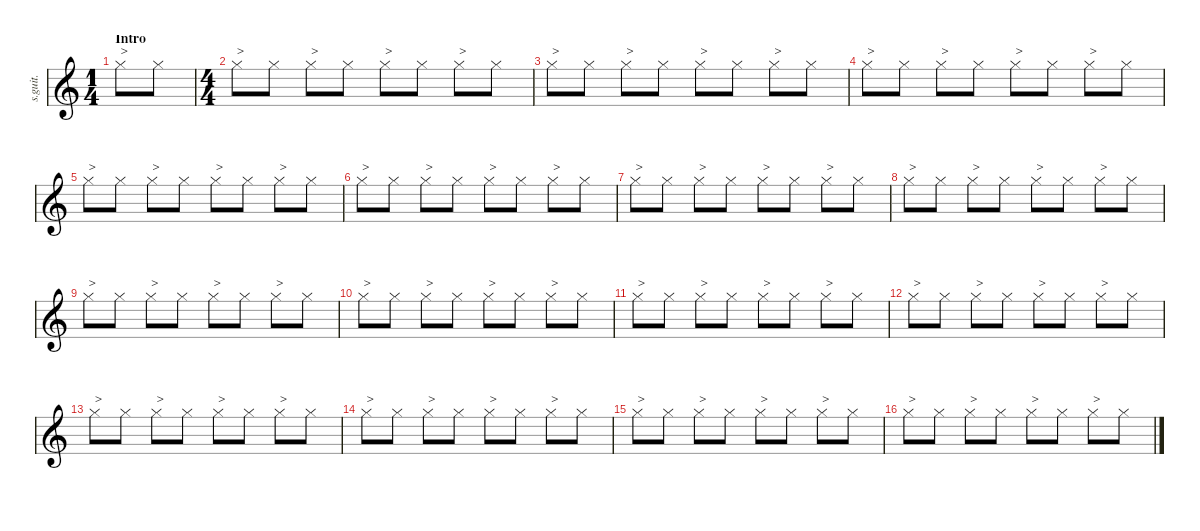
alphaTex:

\defaultSystemsLayout 4
\hideDynamics
\bracketExtendMode nobrackets
\track ("Chris Slade" "s.guit.") {instrument percussion}
\staff {score}
\articulation defaults
\ts (1 4)
\beaming (8 2 2 2 2)
\section ("" "Intro")
\tempo (134 hide)
\clef g2
\ks c "Hi-Hat (closed)".8{txt ">" lyrics (0 "") lyrics (1 "") lyrics (2 "") lyrics (3 "") lyrics (4 "") dy fff} "Hi-Hat (closed)".8{lyrics (0 "") lyrics (1 "") lyrics (2 "") lyrics (3 "") lyrics (4 "") dy mf}
|
\ts (4 4)
\beaming (8 2 2 2 2)
"Hi-Hat (closed)".8{txt ">" lyrics (0 "") lyrics (1 "") lyrics (2 "") lyrics (3 "") lyrics (4 "") dy ff} "Hi-Hat (closed)".8{lyrics (0 "") lyrics (1 "") lyrics (2 "") lyrics (3 "") lyrics (4 "") dy mf} "Hi-Hat (closed)".8{txt ">" lyrics (0 "") lyrics (1 "") lyrics (2 "") lyrics (3 "") lyrics (4 "") dy ff} "Hi-Hat (closed)".8{lyrics (0 "") lyrics (1 "") lyrics (2 "") lyrics (3 "") lyrics (4 "") dy mf} "Hi-Hat (closed)".8{txt ">" lyrics (0 "") lyrics (1 "") lyrics (2 "") lyrics (3 "") lyrics (4 "") dy ff} "Hi-Hat (closed)".8{lyrics (0 "") lyrics (1 "") lyrics (2 "") lyrics (3 "") lyrics (4 "") dy mf} "Hi-Hat (closed)".8{txt ">" lyrics (0 "") lyrics (1 "") lyrics (2 "") lyrics (3 "") lyrics (4 "") dy ff} "Hi-Hat (closed)".8{lyrics (0 "") lyrics (1 "") lyrics (2 "") lyrics (3 "") lyrics (4 "") dy mf} |
"Hi-Hat (closed)".8{txt ">" lyrics (0 "") lyrics (1 "") lyrics (2 "") lyrics (3 "") lyrics (4 "") dy ff} "Hi-Hat (closed)".8{lyrics (0 "") lyrics (1 "") lyrics (2 "") lyrics (3 "") lyrics (4 "") dy mf} "Hi-Hat (closed)".8{txt ">" lyrics (0 "") lyrics (1 "") lyrics (2 "") lyrics (3 "") lyrics (4 "") dy ff} "Hi-Hat (closed)".8{lyrics (0 "") lyrics (1 "") lyrics (2 "") lyrics (3 "") lyrics (4 "") dy mf} "Hi-Hat (closed)".8{txt ">" lyrics (0 "") lyrics (1 "") lyrics (2 "") lyrics (3 "") lyrics (4 "") dy ff} "Hi-Hat (closed)".8{lyrics (0 "") lyrics (1 "") lyrics (2 "") lyrics (3 "") lyrics (4 "") dy mf} "Hi-Hat (closed)".8{txt ">" lyrics (0 "") lyrics (1 "") lyrics (2 "") lyrics (3 "") lyrics (4 "") dy ff} "Hi-Hat (closed)".8{lyrics (0 "") lyrics (1 "") lyrics (2 "") lyrics (3 "") lyrics (4 "") dy mf} |
"Hi-Hat (closed)".8{txt ">" lyrics (0 "") lyrics (1 "") lyrics (2 "") lyrics (3 "") lyrics (4 "") dy ff} "Hi-Hat (closed)".8{lyrics (0 "") lyrics (1 "") lyrics (2 "") lyrics (3 "") lyrics (4 "") dy mf} "Hi-Hat (closed)".8{txt ">" lyrics (0 "") lyrics (1 "") lyrics (2 "") lyrics (3 "") lyrics (4 "") dy ff} "Hi-Hat (closed)".8{lyrics (0 "") lyrics (1 "") lyrics (2 "") lyrics (3 "") lyrics (4 "") dy mf} "Hi-Hat (closed)".8{txt ">" lyrics (0 "") lyrics (1 "") lyrics (2 "") lyrics (3 "") lyrics (4 "") dy ff} "Hi-Hat (closed)".8{lyrics (0 "") lyrics (1 "") lyrics (2 "") lyrics (3 "") lyrics (4 "") dy mf} "Hi-Hat (closed)".8{txt ">" lyrics (0 "") lyrics (1 "") lyrics (2 "") lyrics (3 "") lyrics (4 "") dy ff} "Hi-Hat (closed)".8{lyrics (0 "") lyrics (1 "") lyrics (2 "") lyrics (3 "") lyrics (4 "") dy mf} |
"Hi-Hat (closed)".8{txt ">" lyrics (0 "") lyrics (1 "") lyrics (2 "") lyrics (3 "") lyrics (4 "") dy ff} "Hi-Hat (closed)".8{lyrics (0 "") lyrics (1 "") lyrics (2 "") lyrics (3 "") lyrics (4 "") dy mf} "Hi-Hat (closed)".8{txt ">" lyrics (0 "") lyrics (1 "") lyrics (2 "") lyrics (3 "") lyrics (4 "") dy ff} "Hi-Hat (closed)".8{lyrics (0 "") lyrics (1 "") lyrics (2 "") lyrics (3 "") lyrics (4 "") dy mf} "Hi-Hat (closed)".8{txt ">" lyrics (0 "") lyrics (1 "") lyrics (2 "") lyrics (3 "") lyrics (4 "") dy ff} "Hi-Hat (closed)".8{lyrics (0 "") lyrics (1 "") lyrics (2 "") lyrics (3 "") lyrics (4 "") dy mf} "Hi-Hat (closed)".8{txt ">" lyrics (0 "") lyrics (1 "") lyrics (2 "") lyrics (3 "") lyrics (4 "") dy ff} "Hi-Hat (closed)".8{lyrics (0 "") lyrics (1 "") lyrics (2 "") lyrics (3 "") lyrics (4 "") dy mf} |
"Hi-Hat (closed)".8{txt ">" lyrics (0 "") lyrics (1 "") lyrics (2 "") lyrics (3 "") lyrics (4 "") dy ff} "Hi-Hat (closed)".8{lyrics (0 "") lyrics (1 "") lyrics (2 "") lyrics (3 "") lyrics (4 "") dy mf} "Hi-Hat (closed)".8{txt ">" lyrics (0 "") lyrics (1 "") lyrics (2 "") lyrics (3 "") lyrics (4 "") dy ff} "Hi-Hat (closed)".8{lyrics (0 "") lyrics (1 "") lyrics (2 "") lyrics (3 "") lyrics (4 "") dy mf} "Hi-Hat (closed)".8{txt ">" lyrics (0 "") lyrics (1 "") lyrics (2 "") lyrics (3 "") lyrics (4 "") dy ff} "Hi-Hat (closed)".8{lyrics (0 "") lyrics (1 "") lyrics (2 "") lyrics (3 "") lyrics (4 "") dy mf} "Hi-Hat (closed)".8{txt ">" lyrics (0 "") lyrics (1 "") lyrics (2 "") lyrics (3 "") lyrics (4 "") dy ff} "Hi-Hat (closed)".8{lyrics (0 "") lyrics (1 "") lyrics (2 "") lyrics (3 "") lyrics (4 "") dy mf} |
"Hi-Hat (closed)".8{txt ">" lyrics (0 "") lyrics (1 "") lyrics (2 "") lyrics (3 "") lyrics (4 "") dy ff} "Hi-Hat (closed)".8{lyrics (0 "") lyrics (1 "") lyrics (2 "") lyrics (3 "") lyrics (4 "") dy mf} "Hi-Hat (closed)".8{txt ">" lyrics (0 "") lyrics (1 "") lyrics (2 "") lyrics (3 "") lyrics (4 "") dy ff} "Hi-Hat (closed)".8{lyrics (0 "") lyrics (1 "") lyrics (2 "") lyrics (3 "") lyrics (4 "") dy mf} "Hi-Hat (closed)".8{txt ">" lyrics (0 "") lyrics (1 "") lyrics (2 "") lyrics (3 "") lyrics (4 "") dy ff} "Hi-Hat (closed)".8{lyrics (0 "") lyrics (1 "") lyrics (2 "") lyrics (3 "") lyrics (4 "") dy mf} "Hi-Hat (closed)".8{txt ">" lyrics (0 "") lyrics (1 "") lyrics (2 "") lyrics (3 "") lyrics (4 "") dy ff} "Hi-Hat (closed)".8{lyrics (0 "") lyrics (1 "") lyrics (2 "") lyrics (3 "") lyrics (4 "") dy mf} |
"Hi-Hat (closed)".8{txt ">" lyrics (0 "") lyrics (1 "") lyrics (2 "") lyrics (3 "") lyrics (4 "") dy ff} "Hi-Hat (closed)".8{lyrics (0 "") lyrics (1 "") lyrics (2 "") lyrics (3 "") lyrics (4 "") dy mf} "Hi-Hat (closed)".8{txt ">" lyrics (0 "") lyrics (1 "") lyrics (2 "") lyrics (3 "") lyrics (4 "") dy ff} "Hi-Hat (closed)".8{lyrics (0 "") lyrics (1 "") lyrics (2 "") lyrics (3 "") lyrics (4 "") dy mf} "Hi-Hat (closed)".8{txt ">" lyrics (0 "") lyrics (1 "") lyrics (2 "") lyrics (3 "") lyrics (4 "") dy ff} "Hi-Hat (closed)".8{lyrics (0 "") lyrics (1 "") lyrics (2 "") lyrics (3 "") lyrics (4 "") dy mf} "Hi-Hat (closed)".8{txt ">" lyrics (0 "") lyrics (1 "") lyrics (2 "") lyrics (3 "") lyrics (4 "") dy ff} "Hi-Hat (closed)".8{lyrics (0 "") lyrics (1 "") lyrics (2 "") lyrics (3 "") lyrics (4 "") dy mf} |
"Hi-Hat (closed)".8{txt ">" lyrics (0 "") lyrics (1 "") lyrics (2 "") lyrics (3 "") lyrics (4 "") dy ff} "Hi-Hat (closed)".8{lyrics (0 "") lyrics (1 "") lyrics (2 "") lyrics (3 "") lyrics (4 "") dy mf} "Hi-Hat (closed)".8{txt ">" lyrics (0 "") lyrics (1 "") lyrics (2 "") lyrics (3 "") lyrics (4 "") dy ff} "Hi-Hat (closed)".8{lyrics (0 "") lyrics (1 "") lyrics (2 "") lyrics (3 "") lyrics (4 "") dy mf} "Hi-Hat (closed)".8{txt ">" lyrics (0 "") lyrics (1 "") lyrics (2 "") lyrics (3 "") lyrics (4 "") dy ff} "Hi-Hat (closed)".8{lyrics (0 "") lyrics (1 "") lyrics (2 "") lyrics (3 "") lyrics (4 "") dy mf} "Hi-Hat (closed)".8{txt ">" lyrics (0 "") lyrics (1 "") lyrics (2 "") lyrics (3 "") lyrics (4 "") dy ff} "Hi-Hat (closed)".8{lyrics (0 "") lyrics (1 "") lyrics (2 "") lyrics (3 "") lyrics (4 "") dy mf} |
"Hi-Hat (closed)".8{txt ">" lyrics (0 "") lyrics (1 "") lyrics (2 "") lyrics (3 "") lyrics (4 "") dy ff} "Hi-Hat (closed)".8{lyrics (0 "") lyrics (1 "") lyrics (2 "") lyrics (3 "") lyrics (4 "") dy mf} "Hi-Hat (closed)".8{txt ">" lyrics (0 "") lyrics (1 "") lyrics (2 "") lyrics (3 "") lyrics (4 "") dy ff} "Hi-Hat (closed)".8{lyrics (0 "") lyrics (1 "") lyrics (2 "") lyrics (3 "") lyrics (4 "") dy mf} "Hi-Hat (closed)".8{txt ">" lyrics (0 "") lyrics (1 "") lyrics (2 "") lyrics (3 "") lyrics (4 "") dy ff} "Hi-Hat (closed)".8{lyrics (0 "") lyrics (1 "") lyrics (2 "") lyrics (3 "") lyrics (4 "") dy mf} "Hi-Hat (closed)".8{txt ">" lyrics (0 "") lyrics (1 "") lyrics (2 "") lyrics (3 "") lyrics (4 "") dy ff} "Hi-Hat (closed)".8{lyrics (0 "") lyrics (1 "") lyrics (2 "") lyrics (3 "") lyrics (4 "") dy mf} |
"Hi-Hat (closed)".8{txt ">" lyrics (0 "") lyrics (1 "") lyrics (2 "") lyrics (3 "") lyrics (4 "") dy ff} "Hi-Hat (closed)".8{lyrics (0 "") lyrics (1 "") lyrics (2 "") lyrics (3 "") lyrics (4 "") dy mf} "Hi-Hat (closed)".8{txt ">" lyrics (0 "") lyrics (1 "") lyrics (2 "") lyrics (3 "") lyrics (4 "") dy ff} "Hi-Hat (closed)".8{lyrics (0 "") lyrics (1 "") lyrics (2 "") lyrics (3 "") lyrics (4 "") dy mf} "Hi-Hat (closed)".8{txt ">" lyrics (0 "") lyrics (1 "") lyrics (2 "") lyrics (3 "") lyrics (4 "") dy ff} "Hi-Hat (closed)".8{lyrics (0 "") lyrics (1 "") lyrics (2 "") lyrics (3 "") lyrics (4 "") dy mf} "Hi-Hat (closed)".8{txt ">" lyrics (0 "") lyrics (1 "") lyrics (2 "") lyrics (3 "") lyrics (4 "") dy ff} "Hi-Hat (closed)".8{lyrics (0 "") lyrics (1 "") lyrics (2 "") lyrics (3 "") lyrics (4 "") dy mf} |
"Hi-Hat (closed)".8{txt ">" lyrics (0 "") lyrics (1 "") lyrics (2 "") lyrics (3 "") lyrics (4 "") dy ff} "Hi-Hat (closed)".8{lyrics (0 "") lyrics (1 "") lyrics (2 "") lyrics (3 "") lyrics (4 "") dy mf} "Hi-Hat (closed)".8{txt ">" lyrics (0 "") lyrics (1 "") lyrics (2 "") lyrics (3 "") lyrics (4 "") dy ff} "Hi-Hat (closed)".8{lyrics (0 "") lyrics (1 "") lyrics (2 "") lyrics (3 "") lyrics (4 "") dy mf} "Hi-Hat (closed)".8{txt ">" lyrics (0 "") lyrics (1 "") lyrics (2 "") lyrics (3 "") lyrics (4 "") dy ff} "Hi-Hat (closed)".8{lyrics (0 "") lyrics (1 "") lyrics (2 "") lyrics (3 "") lyrics (4 "") dy mf} "Hi-Hat (closed)".8{txt ">" lyrics (0 "") lyrics (1 "") lyrics (2 "") lyrics (3 "") lyrics (4 "") dy ff} "Hi-Hat (closed)".8{lyrics (0 "") lyrics (1 "") lyrics (2 "") lyrics (3 "") lyrics (4 "") dy mf} |
"Hi-Hat (closed)".8{txt ">" lyrics (0 "") lyrics (1 "") lyrics (2 "") lyrics (3 "") lyrics (4 "") dy ff} "Hi-Hat (closed)".8{lyrics (0 "") lyrics (1 "") lyrics (2 "") lyrics (3 "") lyrics (4 "") dy mf} "Hi-Hat (closed)".8{txt ">" lyrics (0 "") lyrics (1 "") lyrics (2 "") lyrics (3 "") lyrics (4 "") dy ff} "Hi-Hat (closed)".8{lyrics (0 "") lyrics (1 "") lyrics (2 "") lyrics (3 "") lyrics (4 "") dy mf} "Hi-Hat (closed)".8{txt ">" lyrics (0 "") lyrics (1 "") lyrics (2 "") lyrics (3 "") lyrics (4 "") dy ff} "Hi-Hat (closed)".8{lyrics (0 "") lyrics (1 "") lyrics (2 "") lyrics (3 "") lyrics (4 "") dy mf} "Hi-Hat (closed)".8{txt ">" lyrics (0 "") lyrics (1 "") lyrics (2 "") lyrics (3 "") lyrics (4 "") dy ff} "Hi-Hat (closed)".8{lyrics (0 "") lyrics (1 "") lyrics (2 "") lyrics (3 "") lyrics (4 "") dy mf} |
"Hi-Hat (closed)".8{txt ">" lyrics (0 "") lyrics (1 "") lyrics (2 "") lyrics (3 "") lyrics (4 "") dy ff} "Hi-Hat (closed)".8{lyrics (0 "") lyrics (1 "") lyrics (2 "") lyrics (3 "") lyrics (4 "") dy mf} "Hi-Hat (closed)".8{txt ">" lyrics (0 "") lyrics (1 "") lyrics (2 "") lyrics (3 "") lyrics (4 "") dy ff} "Hi-Hat (closed)".8{lyrics (0 "") lyrics (1 "") lyrics (2 "") lyrics (3 "") lyrics (4 "") dy mf} "Hi-Hat (closed)".8{txt ">" lyrics (0 "") lyrics (1 "") lyrics (2 "") lyrics (3 "") lyrics (4 "") dy ff} "Hi-Hat (closed)".8{lyrics (0 "") lyrics (1 "") lyrics (2 "") lyrics (3 "") lyrics (4 "") dy mf} "Hi-Hat (closed)".8{txt ">" lyrics (0 "") lyrics (1 "") lyrics (2 "") lyrics (3 "") lyrics (4 "") dy ff} "Hi-Hat (closed)".8{lyrics (0 "") lyrics (1 "") lyrics (2 "") lyrics (3 "") lyrics (4 "") dy mf} |
"Hi-Hat (closed)".8{txt ">" lyrics (0 "") lyrics (1 "") lyrics (2 "") lyrics (3 "") lyrics (4 "") dy ff} "Hi-Hat (closed)".8{lyrics (0 "") lyrics (1 "") lyrics (2 "") lyrics (3 "") lyrics (4 "") dy mf} "Hi-Hat (closed)".8{txt ">" lyrics (0 "") lyrics (1 "") lyrics (2 "") lyrics (3 "") lyrics (4 "") dy ff} "Hi-Hat (closed)".8{lyrics (0 "") lyrics (1 "") lyrics (2 "") lyrics (3 "") lyrics (4 "") dy mf} "Hi-Hat (closed)".8{txt ">" lyrics (0 "") lyrics (1 "") lyrics (2 "") lyrics (3 "") lyrics (4 "") dy ff} "Hi-Hat (closed)".8{lyrics (0 "") lyrics (1 "") lyrics (2 "") lyrics (3 "") lyrics (4 "") dy mf} "Hi-Hat (closed)".8{txt ">" lyrics (0 "") lyrics (1 "") lyrics (2 "") lyrics (3 "") lyrics (4 "") dy ff} "Hi-Hat (closed)".8{lyrics (0 "") lyrics (1 "") lyrics (2 "") lyrics (3 "") lyrics (4 "") dy mf} |
"Hi-Hat (closed)".8{txt ">" lyrics (0 "") lyrics (1 "") lyrics (2 "") lyrics (3 "") lyrics (4 "") dy ff} "Hi-Hat (closed)".8{lyrics (0 "") lyrics (1 "") lyrics (2 "") lyrics (3 "") lyrics (4 "") dy mf} "Hi-Hat (closed)".8{txt ">" lyrics (0 "") lyrics (1 "") lyrics (2 "") lyrics (3 "") lyrics (4 "") dy ff} "Hi-Hat (closed)".8{lyrics (0 "") lyrics (1 "") lyrics (2 "") lyrics (3 "") lyrics (4 "") dy mf} "Hi-Hat (closed)".8{txt ">" lyrics (0 "") lyrics (1 "") lyrics (2 "") lyrics (3 "") lyrics (4 "") dy ff} "Hi-Hat (closed)".8{lyrics (0 "") lyrics (1 "") lyrics (2 "") lyrics (3 "") lyrics (4 "") dy mf} "Hi-Hat (closed)".8{txt ">" lyrics (0 "") lyrics (1 "") lyrics (2 "") lyrics (3 "") lyrics (4 "") dy ff} "Hi-Hat (closed)".8{lyrics (0 "") lyrics (1 "") lyrics (2 "") lyrics (3 "") lyrics (4 "") dy mf}
